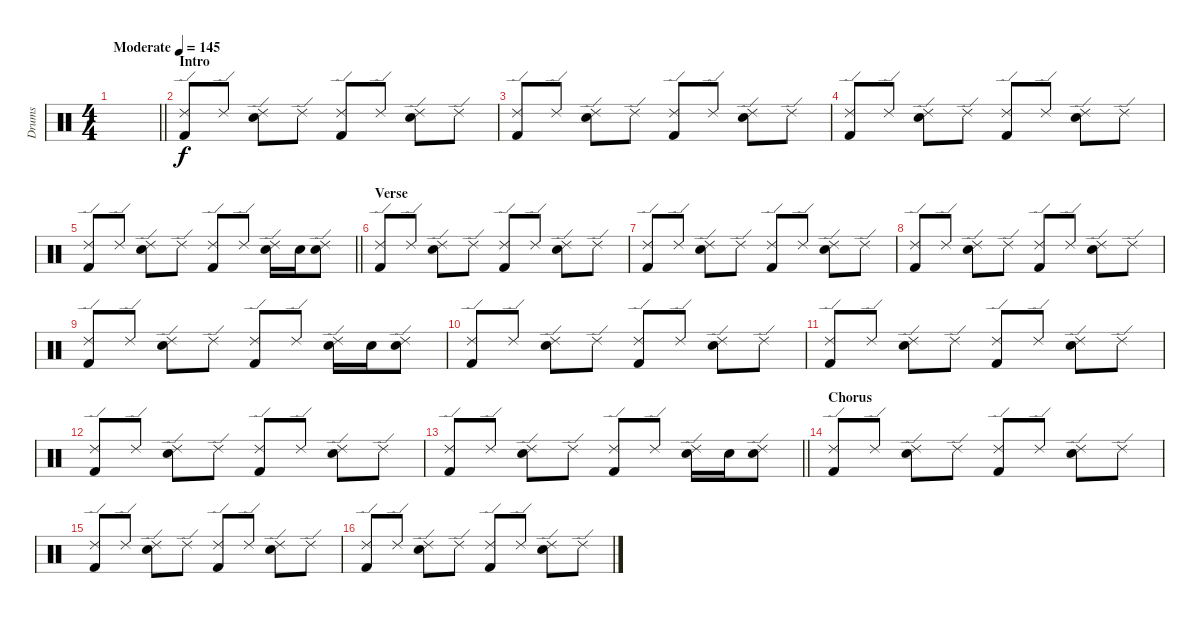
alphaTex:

\track ("Drums" "Drums") {instrument percussion}
\staff {score}
\articulation defaults
\ts (4 4)
\tempo (145 "Moderate")
\clef neutral
\barLineRight lightlight
\ks c
|
\section ("" "Intro")
("Kick (hit) 2" "Ride (edge) 2").8 "Ride (edge) 2".8 ("Electric Snare (hit)" "Ride (edge) 2").8 "Ride (edge) 2".8 ("Kick (hit) 2" "Ride (edge) 2").8 "Ride (edge) 2".8 ("Electric Snare (hit)" "Ride (edge) 2").8 "Ride (edge) 2".8 |
("Kick (hit) 2" "Ride (edge) 2").8 "Ride (edge) 2".8 ("Electric Snare (hit)" "Ride (edge) 2").8 "Ride (edge) 2".8 ("Kick (hit) 2" "Ride (edge) 2").8 "Ride (edge) 2".8 ("Electric Snare (hit)" "Ride (edge) 2").8 "Ride (edge) 2".8 |
("Kick (hit) 2" "Ride (edge) 2").8 "Ride (edge) 2".8 ("Electric Snare (hit)" "Ride (edge) 2").8 "Ride (edge) 2".8 ("Kick (hit) 2" "Ride (edge) 2").8 "Ride (edge) 2".8 ("Electric Snare (hit)" "Ride (edge) 2").8 "Ride (edge) 2".8 |
\barLineRight lightlight
("Kick (hit) 2" "Ride (edge) 2").8 "Ride (edge) 2".8 ("Electric Snare (hit)" "Ride (edge) 2").8 "Ride (edge) 2".8 ("Kick (hit) 2" "Ride (edge) 2").8 "Ride (edge) 2".8 ("Electric Snare (hit)" "Ride (edge) 2").16 "Electric Snare (hit)".16 ("Electric Snare (hit)" "Ride (edge) 2").8 |
\section ("" "Verse")
("Kick (hit) 2" "Ride (edge) 2").8 "Ride (edge) 2".8 ("Electric Snare (hit)" "Ride (edge) 2").8 "Ride (edge) 2".8 ("Kick (hit) 2" "Ride (edge) 2").8 "Ride (edge) 2".8 ("Electric Snare (hit)" "Ride (edge) 2").8 "Ride (edge) 2".8 |
("Kick (hit) 2" "Ride (edge) 2").8 "Ride (edge) 2".8 ("Electric Snare (hit)" "Ride (edge) 2").8 "Ride (edge) 2".8 ("Kick (hit) 2" "Ride (edge) 2").8 "Ride (edge) 2".8 ("Electric Snare (hit)" "Ride (edge) 2").8 "Ride (edge) 2".8 |
("Kick (hit) 2" "Ride (edge) 2").8 "Ride (edge) 2".8 ("Electric Snare (hit)" "Ride (edge) 2").8 "Ride (edge) 2".8 ("Kick (hit) 2" "Ride (edge) 2").8 "Ride (edge) 2".8 ("Electric Snare (hit)" "Ride (edge) 2").8 "Ride (edge) 2".8 |
("Kick (hit) 2" "Ride (edge) 2").8 "Ride (edge) 2".8 ("Electric Snare (hit)" "Ride (edge) 2").8 "Ride (edge) 2".8 ("Kick (hit) 2" "Ride (edge) 2").8 "Ride (edge) 2".8 ("Electric Snare (hit)" "Ride (edge) 2").16 "Electric Snare (hit)".16 ("Electric Snare (hit)" "Ride (edge) 2").8 |
("Kick (hit) 2" "Ride (edge) 2").8 "Ride (edge) 2".8 ("Electric Snare (hit)" "Ride (edge) 2").8 "Ride (edge) 2".8 ("Kick (hit) 2" "Ride (edge) 2").8 "Ride (edge) 2".8 ("Electric Snare (hit)" "Ride (edge) 2").8 "Ride (edge) 2".8 |
("Kick (hit) 2" "Ride (edge) 2").8 "Ride (edge) 2".8 ("Electric Snare (hit)" "Ride (edge) 2").8 "Ride (edge) 2".8 ("Kick (hit) 2" "Ride (edge) 2").8 "Ride (edge) 2".8 ("Electric Snare (hit)" "Ride (edge) 2").8 "Ride (edge) 2".8 |
("Kick (hit) 2" "Ride (edge) 2").8 "Ride (edge) 2".8 ("Electric Snare (hit)" "Ride (edge) 2").8 "Ride (edge) 2".8 ("Kick (hit) 2" "Ride (edge) 2").8 "Ride (edge) 2".8 ("Electric Snare (hit)" "Ride (edge) 2").8 "Ride (edge) 2".8 |
\barLineRight lightlight
("Kick (hit) 2" "Ride (edge) 2").8 "Ride (edge) 2".8 ("Electric Snare (hit)" "Ride (edge) 2").8 "Ride (edge) 2".8 ("Kick (hit) 2" "Ride (edge) 2").8 "Ride (edge) 2".8 ("Electric Snare (hit)" "Ride (edge) 2").16 "Electric Snare (hit)".16 ("Electric Snare (hit)" "Ride (edge) 2").8 |
\section ("" "Chorus")
("Kick (hit) 2" "Ride (edge) 2").8 "Ride (edge) 2".8 ("Electric Snare (hit)" "Ride (edge) 2").8 "Ride (edge) 2".8 ("Kick (hit) 2" "Ride (edge) 2").8 "Ride (edge) 2".8 ("Electric Snare (hit)" "Ride (edge) 2").8 "Ride (edge) 2".8 |
("Kick (hit) 2" "Ride (edge) 2").8 "Ride (edge) 2".8 ("Electric Snare (hit)" "Ride (edge) 2").8 "Ride (edge) 2".8 ("Kick (hit) 2" "Ride (edge) 2").8 "Ride (edge) 2".8 ("Electric Snare (hit)" "Ride (edge) 2").8 "Ride (edge) 2".8 |
("Kick (hit) 2" "Ride (edge) 2").8 "Ride (edge) 2".8 ("Electric Snare (hit)" "Ride (edge) 2").8 "Ride (edge) 2".8 ("Kick (hit) 2" "Ride (edge) 2").8 "Ride (edge) 2".8 ("Electric Snare (hit)" "Ride (edge) 2").8 "Ride (edge) 2".8
